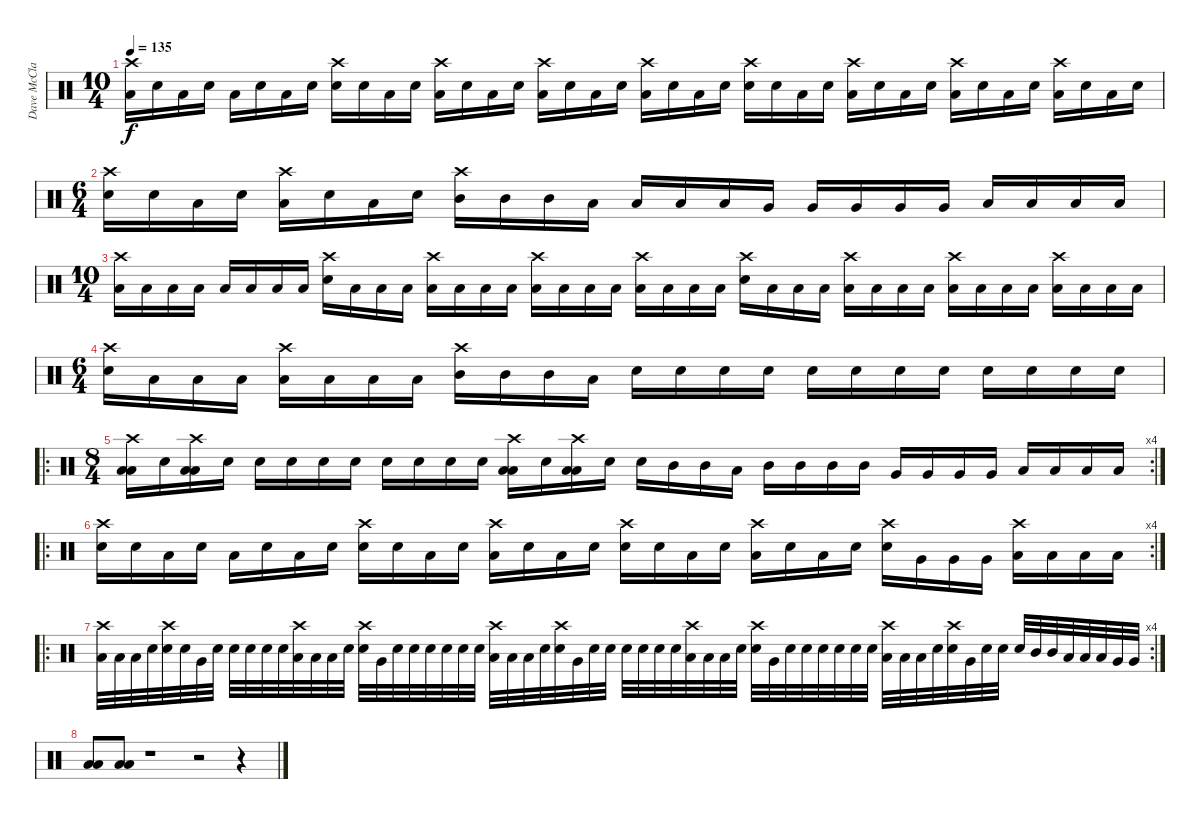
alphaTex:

\track ("Dave McClain [Drums]" "Dave McCla") {instrument percussion}
\staff {score}
\articulation defaults
\ts (10 4)
\tempo 135
\clef neutral
\ks c
("Crash high (hit)" "Low Floor Tom (hit)").16{dy f} "Snare (hit)".16 "Low Floor Tom (hit)".16 "Snare (hit)".16 "Low Floor Tom (hit)".16 "Snare (hit)".16 "Low Floor Tom (hit)".16 "Snare (hit)".16 ("Crash high (hit)" "Electric Snare (hit)").16 "Snare (hit)".16 "Low Floor Tom (hit)".16 "Snare (hit)".16 ("Crash high (hit)" "Low Floor Tom (hit)").16 "Snare (hit)".16 "Low Floor Tom (hit)".16 "Snare (hit)".16 ("Crash high (hit)" "Low Floor Tom (hit)").16 "Snare (hit)".16 "Low Floor Tom (hit)".16 "Snare (hit)".16 ("Crash high (hit)" "Low Floor Tom (hit)").16 "Snare (hit)".16 "Low Floor Tom (hit)".16 "Snare (hit)".16 ("Crash high (hit)" "Electric Snare (hit)").16 "Snare (hit)".16 "Low Floor Tom (hit)".16 "Snare (hit)".16 ("Crash high (hit)" "Low Floor Tom (hit)").16 "Snare (hit)".16 "Low Floor Tom (hit)".16 "Snare (hit)".16 ("Crash high (hit)" "Low Floor Tom (hit)").16 "Snare (hit)".16 "Low Floor Tom (hit)".16 "Snare (hit)".16 ("Crash high (hit)" "Low Floor Tom (hit)").16 "Snare (hit)".16 "Low Floor Tom (hit)".16 "Snare (hit)".16 |
\ts (6 4)
("Crash high (hit)" "Electric Snare (hit)").16 "Snare (hit)".16 "Low Floor Tom (hit)".16 "Snare (hit)".16 ("Crash high (hit)" "Low Floor Tom (hit)").16 "Snare (hit)".16 "Low Floor Tom (hit)".16 "Snare (hit)".16 ("Crash high (hit)" "Mid Tom (hit)").16 "Mid Tom (hit)".16 "Mid Tom (hit)".16 "Low Tom (hit)".16 "Low Tom (hit)".16 "Low Tom (hit)".16 "Low Tom (hit)".16 "Very Low Tom (hit)".16 "Very Low Tom (hit)".16 "Very Low Tom (hit)".16 "Very Low Tom (hit)".16 "Very Low Tom (hit)".16 "Low Floor Tom (hit)".16 "Low Floor Tom (hit)".16 "Low Floor Tom (hit)".16 "Low Floor Tom (hit)".16 |
\ts (10 4)
("Crash high (hit)" "Low Floor Tom (hit)").16 "Low Floor Tom (hit)".16 "Low Floor Tom (hit)".16 "Low Floor Tom (hit)".16 "Low Floor Tom (hit)".16 "Low Floor Tom (hit)".16 "Low Floor Tom (hit)".16 "Low Floor Tom (hit)".16 ("Crash high (hit)" "Electric Snare (hit)").16 "Low Floor Tom (hit)".16 "Low Floor Tom (hit)".16 "Low Floor Tom (hit)".16 ("Crash high (hit)" "Low Floor Tom (hit)").16 "Low Floor Tom (hit)".16 "Low Floor Tom (hit)".16 "Low Floor Tom (hit)".16 ("Crash high (hit)" "Low Floor Tom (hit)").16 "Low Floor Tom (hit)".16 "Low Floor Tom (hit)".16 "Low Floor Tom (hit)".16 ("Crash high (hit)" "Low Floor Tom (hit)").16 "Low Floor Tom (hit)".16 "Low Floor Tom (hit)".16 "Low Floor Tom (hit)".16 ("Crash high (hit)" "Electric Snare (hit)").16 "Low Floor Tom (hit)".16 "Low Floor Tom (hit)".16 "Low Floor Tom (hit)".16 ("Crash high (hit)" "Low Floor Tom (hit)").16 "Low Floor Tom (hit)".16 "Low Floor Tom (hit)".16 "Low Floor Tom (hit)".16 ("Crash high (hit)" "Low Floor Tom (hit)").16 "Low Floor Tom (hit)".16 "Low Floor Tom (hit)".16 "Low Floor Tom (hit)".16 ("Crash high (hit)" "Low Floor Tom (hit)").16 "Low Floor Tom (hit)".16 "Low Floor Tom (hit)".16 "Low Floor Tom (hit)".16 |
\ts (6 4)
("Crash high (hit)" "Electric Snare (hit)").16 "Low Floor Tom (hit)".16 "Low Floor Tom (hit)".16 "Low Floor Tom (hit)".16 ("Crash high (hit)" "Low Floor Tom (hit)").16 "Low Floor Tom (hit)".16 "Low Floor Tom (hit)".16 "Low Floor Tom (hit)".16 ("Crash high (hit)" "Mid Tom (hit)").16 "Mid Tom (hit)".16 "Mid Tom (hit)".16 "Low Tom (hit)".16 "Electric Snare (hit)".16 "Electric Snare (hit)".16 "Electric Snare (hit)".16 "Electric Snare (hit)".16 "Electric Snare (hit)".16 "Electric Snare (hit)".16 "Electric Snare (hit)".16 "Electric Snare (hit)".16 "Electric Snare (hit)".16 "Electric Snare (hit)".16 "Electric Snare (hit)".16 "Electric Snare (hit)".16 |
\ro
\rc 4
\ts (8 4)
("Crash high (hit)" "Low Floor Tom (hit)" "Low Floor Tom (hit)").16 "Snare (hit)".16 ("Crash high (hit)" "Low Floor Tom (hit)" "Low Floor Tom (hit)").16 "Snare (hit)".16 "Electric Snare (hit)".16 "Snare (hit)".16 "Electric Snare (hit)".16 "Snare (hit)".16 "Electric Snare (hit)".16 "Snare (hit)".16 "Electric Snare (hit)".16 "Snare (hit)".16 ("Crash high (hit)" "Low Floor Tom (hit)" "Low Floor Tom (hit)").16 "Snare (hit)".16 ("Crash high (hit)" "Low Floor Tom (hit)" "Low Floor Tom (hit)").16 "Snare (hit)".16 "Snare (hit)".16 "Mid Tom (hit)".16 "Mid Tom (hit)".16 "Low Tom (hit)".16 "Mid Tom (hit)".16 "Mid Tom (hit)".16 "Mid Tom (hit)".16 "Mid Tom (hit)".16 "Very Low Tom (hit)".16 "Very Low Tom (hit)".16 "Very Low Tom (hit)".16 "Very Low Tom (hit)".16 "Low Floor Tom (hit)".16 "Low Floor Tom (hit)".16 "Low Floor Tom (hit)".16 "Low Floor Tom (hit)".16 |
\ro
\rc 4
("Crash high (hit)" "Electric Snare (hit)").16 "Snare (hit)".16 "Low Floor Tom (hit)".16 "Snare (hit)".16 "Low Floor Tom (hit)".16 "Snare (hit)".16 "Low Floor Tom (hit)".16 "Snare (hit)".16 ("Crash high (hit)" "Electric Snare (hit)").16 "Snare (hit)".16 "Low Floor Tom (hit)".16 "Snare (hit)".16 ("Crash high (hit)" "Low Floor Tom (hit)").16 "Snare (hit)".16 "Low Floor Tom (hit)".16 "Snare (hit)".16 ("Crash high (hit)" "Electric Snare (hit)").16 "Snare (hit)".16 "Low Floor Tom (hit)".16 "Snare (hit)".16 ("Crash high (hit)" "Low Floor Tom (hit)").16 "Snare (hit)".16 "Low Floor Tom (hit)".16 "Snare (hit)".16 ("Crash high (hit)" "Electric Snare (hit)").16 "Very Low Tom (hit)".16 "Very Low Tom (hit)".16 "Very Low Tom (hit)".16 ("Crash high (hit)" "Low Floor Tom (hit)").16 "Low Floor Tom (hit)".16 "Low Floor Tom (hit)".16 "Low Floor Tom (hit)".16 |
\ro
\rc 4
("Crash high (hit)" "Low Tom (hit)").32 "Low Tom (hit)".32 "Low Tom (hit)".32 "Snare (hit)".32 ("Crash high (hit)" "Snare (hit)").32 "Snare (hit)".32 "Very Low Tom (hit)".32 "Snare (hit)".32 "Snare (hit)".32 "Snare (hit)".32 "Snare (hit)".32 "Snare (hit)".32 ("Crash high (hit)" "Low Tom (hit)").32 "Low Tom (hit)".32 "Low Tom (hit)".32 "Snare (hit)".32 ("Crash high (hit)" "Snare (hit)").32 "Very Low Tom (hit)".32 "Snare (hit)".32 "Snare (hit)".32 "Snare (hit)".32 "Snare (hit)".32 "Snare (hit)".32 "Snare (hit)".32 ("Crash high (hit)" "Low Tom (hit)").32 "Low Tom (hit)".32 "Low Tom (hit)".32 "Snare (hit)".32 ("Crash high (hit)" "Snare (hit)").32 "Very Low Tom (hit)".32 "Snare (hit)".32 "Snare (hit)".32 "Snare (hit)".32 "Snare (hit)".32 "Snare (hit)".32 "Snare (hit)".32 ("Crash high (hit)" "Low Tom (hit)").32 "Low Tom (hit)".32 "Low Tom (hit)".32 "Snare (hit)".32 ("Crash high (hit)" "Snare (hit)").32 "Very Low Tom (hit)".32 "Snare (hit)".32 "Snare (hit)".32 "Snare (hit)".32 "Snare (hit)".32 "Snare (hit)".32 "Snare (hit)".32 ("Crash high (hit)" "Low Tom (hit)").32 "Low Tom (hit)".32 "Low Tom (hit)".32 "Snare (hit)".32 ("Crash high (hit)" "Snare (hit)").32 "Very Low Tom (hit)".32 "Snare (hit)".32 "Snare (hit)".32 "Snare (hit)".32 "Mid Tom (hit)".32 "Mid Tom (hit)".32 "Low Tom (hit)".32 "Low Tom (hit)".32 "Low Tom (hit)".32 "Very Low Tom (hit)".32 "Very Low Tom (hit)".32 |
("Low Floor Tom (hit)" "Low Tom (hit)").8 ("Low Floor Tom (hit)" "Low Tom (hit)").8 r.1 r.2 r.4
